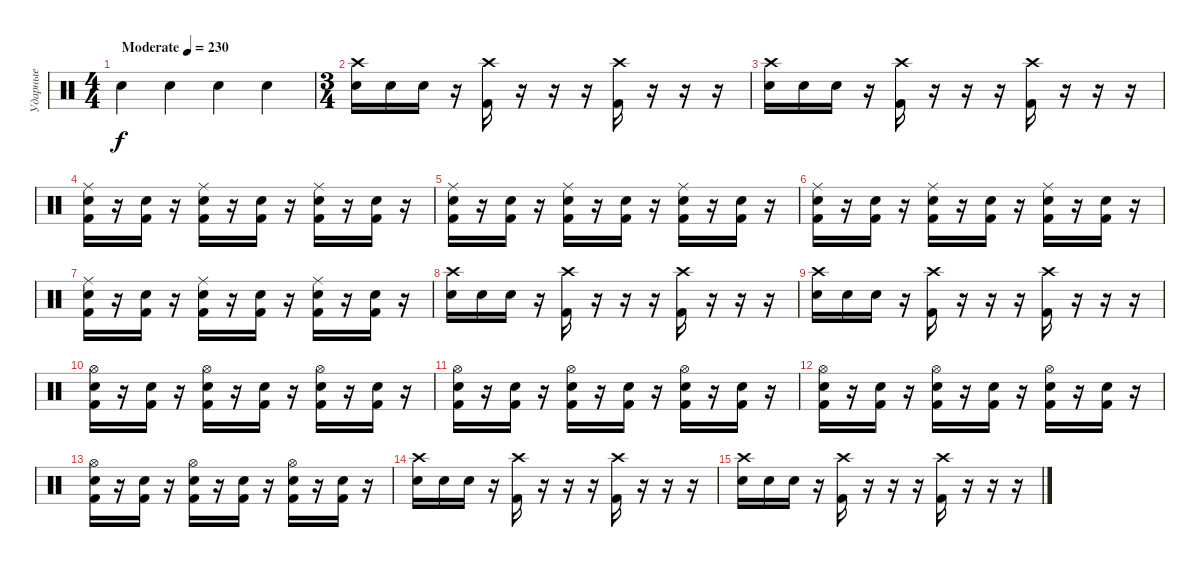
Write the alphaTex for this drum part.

\track ("Ударные" "Ударные") {instrument percussion}
\staff {score}
\articulation defaults
\ts (4 4)
\tempo (230 "Moderate")
\clef neutral
\ks c "Electric Snare (hit)".4{dy f} "Electric Snare (hit)".4 "Electric Snare (hit)".4 "Electric Snare (hit)".4
|
\ts (3 4)
("Electric Snare (hit)" "Crash high (hit)").16 "Electric Snare (hit)".16 "Electric Snare (hit)".16 r.16 ("Kick (hit) 2" "Crash high (hit)").16 r.16 r.16 r.16 ("Kick (hit) 2" "Crash high (hit)").16 r.16 r.16 r.16 |
("Electric Snare (hit)" "Crash high (hit)").16 "Electric Snare (hit)".16 "Electric Snare (hit)".16 r.16 ("Kick (hit) 2" "Crash high (hit)").16 r.16 r.16 r.16 ("Kick (hit) 2" "Crash high (hit)").16 r.16 r.16 r.16 |
("Electric Snare (hit)" "Kick (hit) 2" "Ride (middle)").16 r.16 ("Electric Snare (hit)" "Kick (hit) 2").16 r.16 ("Electric Snare (hit)" "Kick (hit) 2" "Ride (middle)").16 r.16 ("Electric Snare (hit)" "Kick (hit) 2").16 r.16 ("Electric Snare (hit)" "Kick (hit) 2" "Ride (middle)").16 r.16 ("Electric Snare (hit)" "Kick (hit) 2").16 r.16 |
("Electric Snare (hit)" "Kick (hit) 2" "Ride (middle)").16 r.16 ("Electric Snare (hit)" "Kick (hit) 2").16 r.16 ("Electric Snare (hit)" "Kick (hit) 2" "Ride (middle)").16 r.16 ("Electric Snare (hit)" "Kick (hit) 2").16 r.16 ("Electric Snare (hit)" "Kick (hit) 2" "Ride (middle)").16 r.16 ("Electric Snare (hit)" "Kick (hit) 2").16 r.16 |
("Electric Snare (hit)" "Kick (hit) 2" "Ride (middle)").16 r.16 ("Electric Snare (hit)" "Kick (hit) 2").16 r.16 ("Electric Snare (hit)" "Kick (hit) 2" "Ride (middle)").16 r.16 ("Electric Snare (hit)" "Kick (hit) 2").16 r.16 ("Electric Snare (hit)" "Kick (hit) 2" "Ride (middle)").16 r.16 ("Electric Snare (hit)" "Kick (hit) 2").16 r.16 |
("Electric Snare (hit)" "Kick (hit) 2" "Ride (middle)").16 r.16 ("Electric Snare (hit)" "Kick (hit) 2").16 r.16 ("Electric Snare (hit)" "Kick (hit) 2" "Ride (middle)").16 r.16 ("Electric Snare (hit)" "Kick (hit) 2").16 r.16 ("Electric Snare (hit)" "Kick (hit) 2" "Ride (middle)").16 r.16 ("Electric Snare (hit)" "Kick (hit) 2").16 r.16 |
("Electric Snare (hit)" "Crash high (hit)").16 "Electric Snare (hit)".16 "Electric Snare (hit)".16 r.16 ("Kick (hit) 2" "Crash high (hit)").16 r.16 r.16 r.16 ("Kick (hit) 2" "Crash high (hit)").16 r.16 r.16 r.16 |
("Electric Snare (hit)" "Crash high (hit)").16 "Electric Snare (hit)".16 "Electric Snare (hit)".16 r.16 ("Kick (hit) 2" "Crash high (hit)").16 r.16 r.16 r.16 ("Kick (hit) 2" "Crash high (hit)").16 r.16 r.16 r.16 |
("Electric Snare (hit)" "Kick (hit) 2" "Hi-Hat (open)").16 r.16 ("Electric Snare (hit)" "Kick (hit) 2").16 r.16 ("Electric Snare (hit)" "Kick (hit) 2" "Hi-Hat (open)").16 r.16 ("Electric Snare (hit)" "Kick (hit) 2").16 r.16 ("Electric Snare (hit)" "Kick (hit) 2" "Hi-Hat (open)").16 r.16 ("Electric Snare (hit)" "Kick (hit) 2").16 r.16 |
("Electric Snare (hit)" "Kick (hit) 2" "Hi-Hat (open)").16 r.16 ("Electric Snare (hit)" "Kick (hit) 2").16 r.16 ("Electric Snare (hit)" "Kick (hit) 2" "Hi-Hat (open)").16 r.16 ("Electric Snare (hit)" "Kick (hit) 2").16 r.16 ("Electric Snare (hit)" "Kick (hit) 2" "Hi-Hat (open)").16 r.16 ("Electric Snare (hit)" "Kick (hit) 2").16 r.16 |
("Electric Snare (hit)" "Kick (hit) 2" "Hi-Hat (open)").16 r.16 ("Electric Snare (hit)" "Kick (hit) 2").16 r.16 ("Electric Snare (hit)" "Kick (hit) 2" "Hi-Hat (open)").16 r.16 ("Electric Snare (hit)" "Kick (hit) 2").16 r.16 ("Electric Snare (hit)" "Kick (hit) 2" "Hi-Hat (open)").16 r.16 ("Electric Snare (hit)" "Kick (hit) 2").16 r.16 |
("Electric Snare (hit)" "Kick (hit) 2" "Hi-Hat (open)").16 r.16 ("Electric Snare (hit)" "Kick (hit) 2").16 r.16 ("Electric Snare (hit)" "Kick (hit) 2" "Hi-Hat (open)").16 r.16 ("Electric Snare (hit)" "Kick (hit) 2").16 r.16 ("Electric Snare (hit)" "Kick (hit) 2" "Hi-Hat (open)").16 r.16 ("Electric Snare (hit)" "Kick (hit) 2").16 r.16 |
("Electric Snare (hit)" "Crash high (hit)").16 "Electric Snare (hit)".16 "Electric Snare (hit)".16 r.16 ("Kick (hit) 2" "Crash high (hit)").16 r.16 r.16 r.16 ("Kick (hit) 2" "Crash high (hit)").16 r.16 r.16 r.16 |
("Electric Snare (hit)" "Crash high (hit)").16 "Electric Snare (hit)".16 "Electric Snare (hit)".16 r.16 ("Kick (hit) 2" "Crash high (hit)").16 r.16 r.16 r.16 ("Kick (hit) 2" "Crash high (hit)").16 r.16 r.16 r.16
